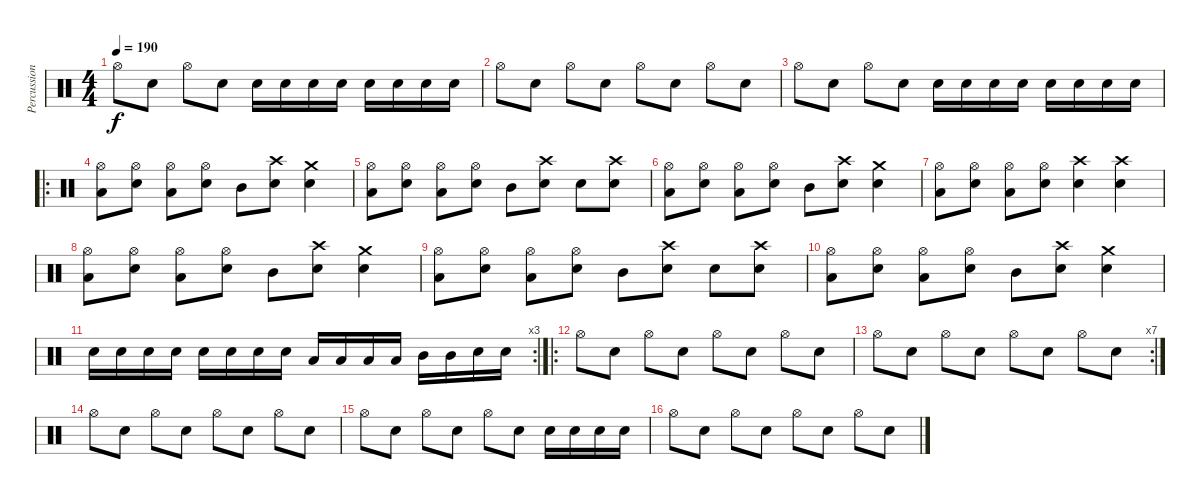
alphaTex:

\track ("Percussions" "Percussion") {instrument percussion}
\staff {score}
\articulation defaults
\ts (4 4)
\tempo 190
\clef neutral
\ks c "Hi-Hat (open)".8{dy f} "Snare (hit) 2".8 "Hi-Hat (open)".8 "Snare (hit) 2".8 "Electric Snare (hit)".16 "Electric Snare (hit)".16 "Electric Snare (hit)".16 "Electric Snare (hit)".16 "Electric Snare (hit)".16 "Electric Snare (hit)".16 "Electric Snare (hit)".16 "Electric Snare (hit)".16
|
"Hi-Hat (open)".8 "Snare (hit) 2".8 "Hi-Hat (open)".8 "Snare (hit) 2".8 "Hi-Hat (open)".8 "Snare (hit) 2".8 "Hi-Hat (open)".8 "Snare (hit) 2".8 |
"Hi-Hat (open)".8 "Snare (hit) 2".8 "Hi-Hat (open)".8 "Snare (hit) 2".8 "Electric Snare (hit)".16 "Electric Snare (hit)".16 "Electric Snare (hit)".16 "Electric Snare (hit)".16 "Electric Snare (hit)".16 "Electric Snare (hit)".16 "Electric Snare (hit)".16 "Electric Snare (hit)".16 |
\ro
("Hi-Hat (open)" "Low Tom (hit)").8 ("Hi-Hat (open)" "Snare (hit) 2").8 ("Hi-Hat (open)" "Low Tom (hit)").8 ("Hi-Hat (open)" "Snare (hit) 2").8 "Mid Tom (hit)".8 ("Crash high (hit)" "Snare (hit) 2").8 ("Crash medium (hit)" "Electric Snare (hit)").4 |
("Hi-Hat (open)" "Low Tom (hit)").8 ("Hi-Hat (open)" "Snare (hit) 2").8 ("Hi-Hat (open)" "Low Tom (hit)").8 ("Hi-Hat (open)" "Snare (hit) 2").8 "Mid Tom (hit)".8 ("Crash high (hit)" "Snare (hit) 2").8 "Electric Snare (hit)".8 ("Crash high (hit)" "Snare (hit) 2").8 |
("Hi-Hat (open)" "Low Tom (hit)").8 ("Hi-Hat (open)" "Snare (hit) 2").8 ("Hi-Hat (open)" "Low Tom (hit)").8 ("Hi-Hat (open)" "Snare (hit) 2").8 "Mid Tom (hit)".8 ("Crash high (hit)" "Snare (hit) 2").8 ("Crash medium (hit)" "Electric Snare (hit)").4 |
("Hi-Hat (open)" "Low Tom (hit)").8 ("Hi-Hat (open)" "Snare (hit) 2").8 ("Hi-Hat (open)" "Low Tom (hit)").8 ("Hi-Hat (open)" "Snare (hit) 2").8 ("Crash high (hit)" "Electric Snare (hit)").4 ("Crash high (hit)" "Electric Snare (hit)").4 |
("Hi-Hat (open)" "Low Tom (hit)").8 ("Hi-Hat (open)" "Snare (hit) 2").8 ("Hi-Hat (open)" "Low Tom (hit)").8 ("Hi-Hat (open)" "Snare (hit) 2").8 "Mid Tom (hit)".8 ("Crash high (hit)" "Snare (hit) 2").8 ("Crash medium (hit)" "Electric Snare (hit)").4 |
("Hi-Hat (open)" "Low Tom (hit)").8 ("Hi-Hat (open)" "Snare (hit) 2").8 ("Hi-Hat (open)" "Low Tom (hit)").8 ("Hi-Hat (open)" "Snare (hit) 2").8 "Mid Tom (hit)".8 ("Crash high (hit)" "Snare (hit) 2").8 "Electric Snare (hit)".8 ("Crash high (hit)" "Snare (hit) 2").8 |
("Hi-Hat (open)" "Low Tom (hit)").8 ("Hi-Hat (open)" "Snare (hit) 2").8 ("Hi-Hat (open)" "Low Tom (hit)").8 ("Hi-Hat (open)" "Snare (hit) 2").8 "Mid Tom (hit)".8 ("Crash high (hit)" "Snare (hit) 2").8 ("Crash medium (hit)" "Electric Snare (hit)").4 |
\rc 3 "Snare (hit) 2".16 "Snare (hit) 2".16 "Snare (hit) 2".16 "Snare (hit) 2".16 "Snare (hit) 2".16 "Snare (hit) 2".16 "Snare (hit) 2".16 "Snare (hit) 2".16 "Low Tom (hit)".16 "Low Tom (hit)".16 "Low Tom (hit)".16 "Low Tom (hit)".16 "Mid Tom (hit)".16 "Mid Tom (hit)".16 "Snare (hit) 2".16 "Electric Snare (hit)".16
|
\ro "Hi-Hat (open)".8 "Snare (hit) 2".8 "Hi-Hat (open)".8 "Snare (hit) 2".8 "Hi-Hat (open)".8 "Snare (hit) 2".8 "Hi-Hat (open)".8 "Snare (hit) 2".8
|
\rc 7 "Hi-Hat (open)".8 "Snare (hit) 2".8 "Hi-Hat (open)".8 "Snare (hit) 2".8 "Hi-Hat (open)".8 "Snare (hit) 2".8 "Hi-Hat (open)".8 "Snare (hit) 2".8
|
"Hi-Hat (open)".8 "Snare (hit) 2".8 "Hi-Hat (open)".8 "Snare (hit) 2".8 "Hi-Hat (open)".8 "Snare (hit) 2".8 "Hi-Hat (open)".8 "Snare (hit) 2".8 |
"Hi-Hat (open)".8 "Snare (hit) 2".8 "Hi-Hat (open)".8 "Snare (hit) 2".8 "Hi-Hat (open)".8 "Snare (hit) 2".8 "Electric Snare (hit)".16 "Electric Snare (hit)".16 "Electric Snare (hit)".16 "Electric Snare (hit)".16 |
"Hi-Hat (open)".8 "Snare (hit) 2".8 "Hi-Hat (open)".8 "Snare (hit) 2".8 "Hi-Hat (open)".8 "Snare (hit) 2".8 "Hi-Hat (open)".8 "Snare (hit) 2".8
